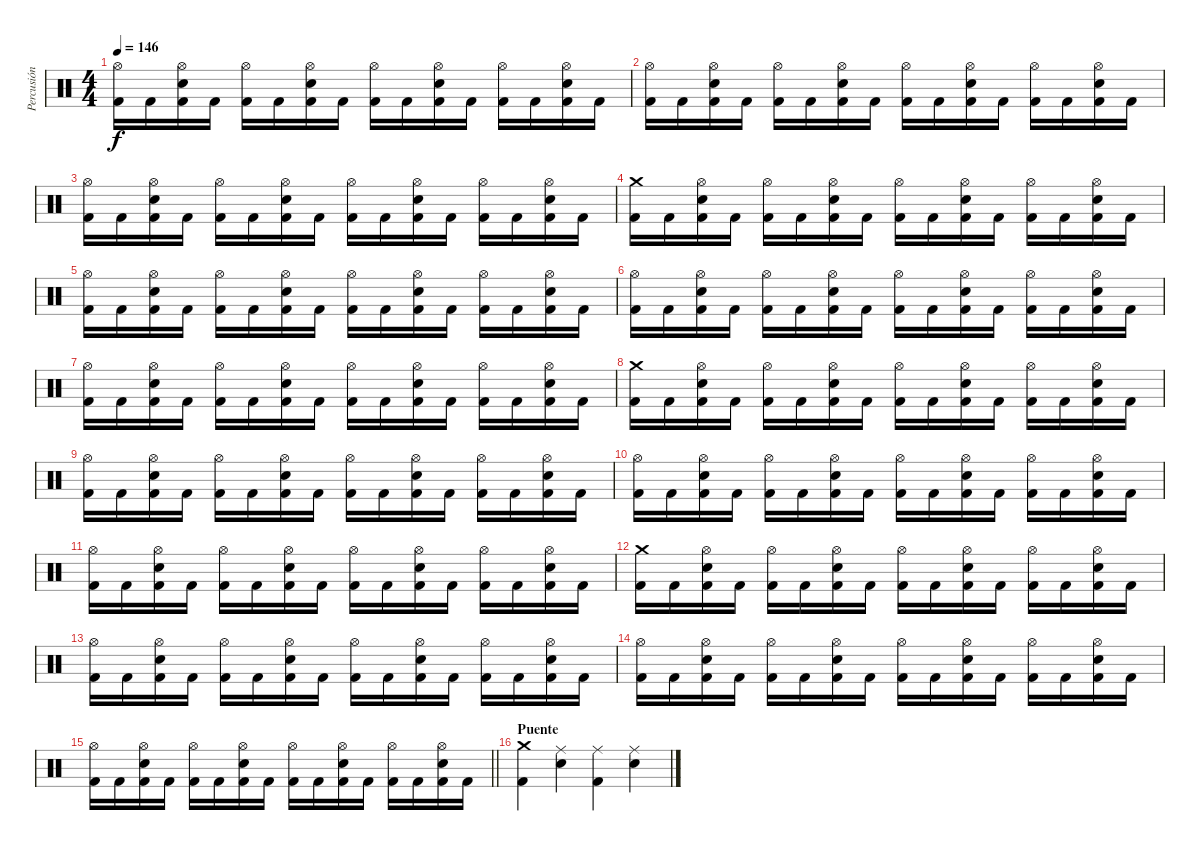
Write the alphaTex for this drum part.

\track ("Percusión" "Percusión") {instrument percussion}
\staff {score}
\articulation defaults
\ts (4 4)
\tempo 146
\clef neutral
\ks c
("Hi-Hat (open)" "Kick (hit) 2").16{dy f} "Kick (hit) 2".16 ("Hi-Hat (open)" "Snare (hit) 2" "Kick (hit) 2").16 "Kick (hit) 2".16 ("Hi-Hat (open)" "Kick (hit) 2").16 "Kick (hit) 2".16 ("Hi-Hat (open)" "Snare (hit) 2" "Kick (hit) 2").16 "Kick (hit) 2".16 ("Hi-Hat (open)" "Kick (hit) 2").16 "Kick (hit) 2".16 ("Hi-Hat (open)" "Snare (hit) 2" "Kick (hit) 2").16 "Kick (hit) 2".16 ("Hi-Hat (open)" "Kick (hit) 2").16 "Kick (hit) 2".16 ("Hi-Hat (open)" "Snare (hit) 2" "Kick (hit) 2").16 "Kick (hit) 2".16 |
("Hi-Hat (open)" "Kick (hit) 2").16 "Kick (hit) 2".16 ("Hi-Hat (open)" "Snare (hit) 2" "Kick (hit) 2").16 "Kick (hit) 2".16 ("Hi-Hat (open)" "Kick (hit) 2").16 "Kick (hit) 2".16 ("Hi-Hat (open)" "Snare (hit) 2" "Kick (hit) 2").16 "Kick (hit) 2".16 ("Hi-Hat (open)" "Kick (hit) 2").16 "Kick (hit) 2".16 ("Hi-Hat (open)" "Snare (hit) 2" "Kick (hit) 2").16 "Kick (hit) 2".16 ("Hi-Hat (open)" "Kick (hit) 2").16 "Kick (hit) 2".16 ("Hi-Hat (open)" "Snare (hit) 2" "Kick (hit) 2").16 "Kick (hit) 2".16 |
("Hi-Hat (open)" "Kick (hit) 2").16 "Kick (hit) 2".16 ("Hi-Hat (open)" "Snare (hit) 2" "Kick (hit) 2").16 "Kick (hit) 2".16 ("Hi-Hat (open)" "Kick (hit) 2").16 "Kick (hit) 2".16 ("Hi-Hat (open)" "Snare (hit) 2" "Kick (hit) 2").16 "Kick (hit) 2".16 ("Hi-Hat (open)" "Kick (hit) 2").16 "Kick (hit) 2".16 ("Hi-Hat (open)" "Snare (hit) 2" "Kick (hit) 2").16 "Kick (hit) 2".16 ("Hi-Hat (open)" "Kick (hit) 2").16 "Kick (hit) 2".16 ("Hi-Hat (open)" "Snare (hit) 2" "Kick (hit) 2").16 "Kick (hit) 2".16 |
("Crash medium (hit)" "Kick (hit) 2").16 "Kick (hit) 2".16 ("Hi-Hat (open)" "Snare (hit) 2" "Kick (hit) 2").16 "Kick (hit) 2".16 ("Hi-Hat (open)" "Kick (hit) 2").16 "Kick (hit) 2".16 ("Hi-Hat (open)" "Snare (hit) 2" "Kick (hit) 2").16 "Kick (hit) 2".16 ("Hi-Hat (open)" "Kick (hit) 2").16 "Kick (hit) 2".16 ("Hi-Hat (open)" "Snare (hit) 2" "Kick (hit) 2").16 "Kick (hit) 2".16 ("Hi-Hat (open)" "Kick (hit) 2").16 "Kick (hit) 2".16 ("Hi-Hat (open)" "Snare (hit) 2" "Kick (hit) 2").16 "Kick (hit) 2".16 |
("Hi-Hat (open)" "Kick (hit) 2").16 "Kick (hit) 2".16 ("Hi-Hat (open)" "Snare (hit) 2" "Kick (hit) 2").16 "Kick (hit) 2".16 ("Hi-Hat (open)" "Kick (hit) 2").16 "Kick (hit) 2".16 ("Hi-Hat (open)" "Snare (hit) 2" "Kick (hit) 2").16 "Kick (hit) 2".16 ("Hi-Hat (open)" "Kick (hit) 2").16 "Kick (hit) 2".16 ("Hi-Hat (open)" "Snare (hit) 2" "Kick (hit) 2").16 "Kick (hit) 2".16 ("Hi-Hat (open)" "Kick (hit) 2").16 "Kick (hit) 2".16 ("Hi-Hat (open)" "Snare (hit) 2" "Kick (hit) 2").16 "Kick (hit) 2".16 |
("Hi-Hat (open)" "Kick (hit) 2").16 "Kick (hit) 2".16 ("Hi-Hat (open)" "Snare (hit) 2" "Kick (hit) 2").16 "Kick (hit) 2".16 ("Hi-Hat (open)" "Kick (hit) 2").16 "Kick (hit) 2".16 ("Hi-Hat (open)" "Snare (hit) 2" "Kick (hit) 2").16 "Kick (hit) 2".16 ("Hi-Hat (open)" "Kick (hit) 2").16 "Kick (hit) 2".16 ("Hi-Hat (open)" "Snare (hit) 2" "Kick (hit) 2").16 "Kick (hit) 2".16 ("Hi-Hat (open)" "Kick (hit) 2").16 "Kick (hit) 2".16 ("Hi-Hat (open)" "Snare (hit) 2" "Kick (hit) 2").16 "Kick (hit) 2".16 |
("Hi-Hat (open)" "Kick (hit) 2").16 "Kick (hit) 2".16 ("Hi-Hat (open)" "Snare (hit) 2" "Kick (hit) 2").16 "Kick (hit) 2".16 ("Hi-Hat (open)" "Kick (hit) 2").16 "Kick (hit) 2".16 ("Hi-Hat (open)" "Snare (hit) 2" "Kick (hit) 2").16 "Kick (hit) 2".16 ("Hi-Hat (open)" "Kick (hit) 2").16 "Kick (hit) 2".16 ("Hi-Hat (open)" "Snare (hit) 2" "Kick (hit) 2").16 "Kick (hit) 2".16 ("Hi-Hat (open)" "Kick (hit) 2").16 "Kick (hit) 2".16 ("Hi-Hat (open)" "Snare (hit) 2" "Kick (hit) 2").16 "Kick (hit) 2".16 |
("Crash medium (hit)" "Kick (hit) 2").16 "Kick (hit) 2".16 ("Hi-Hat (open)" "Snare (hit) 2" "Kick (hit) 2").16 "Kick (hit) 2".16 ("Hi-Hat (open)" "Kick (hit) 2").16 "Kick (hit) 2".16 ("Hi-Hat (open)" "Snare (hit) 2" "Kick (hit) 2").16 "Kick (hit) 2".16 ("Hi-Hat (open)" "Kick (hit) 2").16 "Kick (hit) 2".16 ("Hi-Hat (open)" "Snare (hit) 2" "Kick (hit) 2").16 "Kick (hit) 2".16 ("Hi-Hat (open)" "Kick (hit) 2").16 "Kick (hit) 2".16 ("Hi-Hat (open)" "Snare (hit) 2" "Kick (hit) 2").16 "Kick (hit) 2".16 |
("Hi-Hat (open)" "Kick (hit) 2").16 "Kick (hit) 2".16 ("Hi-Hat (open)" "Snare (hit) 2" "Kick (hit) 2").16 "Kick (hit) 2".16 ("Hi-Hat (open)" "Kick (hit) 2").16 "Kick (hit) 2".16 ("Hi-Hat (open)" "Snare (hit) 2" "Kick (hit) 2").16 "Kick (hit) 2".16 ("Hi-Hat (open)" "Kick (hit) 2").16 "Kick (hit) 2".16 ("Hi-Hat (open)" "Snare (hit) 2" "Kick (hit) 2").16 "Kick (hit) 2".16 ("Hi-Hat (open)" "Kick (hit) 2").16 "Kick (hit) 2".16 ("Hi-Hat (open)" "Snare (hit) 2" "Kick (hit) 2").16 "Kick (hit) 2".16 |
("Hi-Hat (open)" "Kick (hit) 2").16 "Kick (hit) 2".16 ("Hi-Hat (open)" "Snare (hit) 2" "Kick (hit) 2").16 "Kick (hit) 2".16 ("Hi-Hat (open)" "Kick (hit) 2").16 "Kick (hit) 2".16 ("Hi-Hat (open)" "Snare (hit) 2" "Kick (hit) 2").16 "Kick (hit) 2".16 ("Hi-Hat (open)" "Kick (hit) 2").16 "Kick (hit) 2".16 ("Hi-Hat (open)" "Snare (hit) 2" "Kick (hit) 2").16 "Kick (hit) 2".16 ("Hi-Hat (open)" "Kick (hit) 2").16 "Kick (hit) 2".16 ("Hi-Hat (open)" "Snare (hit) 2" "Kick (hit) 2").16 "Kick (hit) 2".16 |
("Hi-Hat (open)" "Kick (hit) 2").16 "Kick (hit) 2".16 ("Hi-Hat (open)" "Snare (hit) 2" "Kick (hit) 2").16 "Kick (hit) 2".16 ("Hi-Hat (open)" "Kick (hit) 2").16 "Kick (hit) 2".16 ("Hi-Hat (open)" "Snare (hit) 2" "Kick (hit) 2").16 "Kick (hit) 2".16 ("Hi-Hat (open)" "Kick (hit) 2").16 "Kick (hit) 2".16 ("Hi-Hat (open)" "Snare (hit) 2" "Kick (hit) 2").16 "Kick (hit) 2".16 ("Hi-Hat (open)" "Kick (hit) 2").16 "Kick (hit) 2".16 ("Hi-Hat (open)" "Snare (hit) 2" "Kick (hit) 2").16 "Kick (hit) 2".16 |
("Crash medium (hit)" "Kick (hit) 2").16 "Kick (hit) 2".16 ("Hi-Hat (open)" "Snare (hit) 2" "Kick (hit) 2").16 "Kick (hit) 2".16 ("Hi-Hat (open)" "Kick (hit) 2").16 "Kick (hit) 2".16 ("Hi-Hat (open)" "Snare (hit) 2" "Kick (hit) 2").16 "Kick (hit) 2".16 ("Hi-Hat (open)" "Kick (hit) 2").16 "Kick (hit) 2".16 ("Hi-Hat (open)" "Snare (hit) 2" "Kick (hit) 2").16 "Kick (hit) 2".16 ("Hi-Hat (open)" "Kick (hit) 2").16 "Kick (hit) 2".16 ("Hi-Hat (open)" "Snare (hit) 2" "Kick (hit) 2").16 "Kick (hit) 2".16 |
("Hi-Hat (open)" "Kick (hit) 2").16 "Kick (hit) 2".16 ("Hi-Hat (open)" "Snare (hit) 2" "Kick (hit) 2").16 "Kick (hit) 2".16 ("Hi-Hat (open)" "Kick (hit) 2").16 "Kick (hit) 2".16 ("Hi-Hat (open)" "Snare (hit) 2" "Kick (hit) 2").16 "Kick (hit) 2".16 ("Hi-Hat (open)" "Kick (hit) 2").16 "Kick (hit) 2".16 ("Hi-Hat (open)" "Snare (hit) 2" "Kick (hit) 2").16 "Kick (hit) 2".16 ("Hi-Hat (open)" "Kick (hit) 2").16 "Kick (hit) 2".16 ("Hi-Hat (open)" "Snare (hit) 2" "Kick (hit) 2").16 "Kick (hit) 2".16 |
("Hi-Hat (open)" "Kick (hit) 2").16 "Kick (hit) 2".16 ("Hi-Hat (open)" "Snare (hit) 2" "Kick (hit) 2").16 "Kick (hit) 2".16 ("Hi-Hat (open)" "Kick (hit) 2").16 "Kick (hit) 2".16 ("Hi-Hat (open)" "Snare (hit) 2" "Kick (hit) 2").16 "Kick (hit) 2".16 ("Hi-Hat (open)" "Kick (hit) 2").16 "Kick (hit) 2".16 ("Hi-Hat (open)" "Snare (hit) 2" "Kick (hit) 2").16 "Kick (hit) 2".16 ("Hi-Hat (open)" "Kick (hit) 2").16 "Kick (hit) 2".16 ("Hi-Hat (open)" "Snare (hit) 2" "Kick (hit) 2").16 "Kick (hit) 2".16 |
\barLineRight lightlight
("Hi-Hat (open)" "Kick (hit) 2").16 "Kick (hit) 2".16 ("Hi-Hat (open)" "Snare (hit) 2" "Kick (hit) 2").16 "Kick (hit) 2".16 ("Hi-Hat (open)" "Kick (hit) 2").16 "Kick (hit) 2".16 ("Hi-Hat (open)" "Snare (hit) 2" "Kick (hit) 2").16 "Kick (hit) 2".16 ("Hi-Hat (open)" "Kick (hit) 2").16 "Kick (hit) 2".16 ("Hi-Hat (open)" "Snare (hit) 2" "Kick (hit) 2").16 "Kick (hit) 2".16 ("Hi-Hat (open)" "Kick (hit) 2").16 "Kick (hit) 2".16 ("Hi-Hat (open)" "Snare (hit) 2" "Kick (hit) 2").16 "Kick (hit) 2".16 |
\section ("" "Puente")
("Crash medium (hit)" "Kick (hit) 2").4 ("Ride (middle)" "Snare (hit) 2").4 ("Ride (middle)" "Kick (hit) 2").4 ("Ride (middle)" "Snare (hit) 2").4
